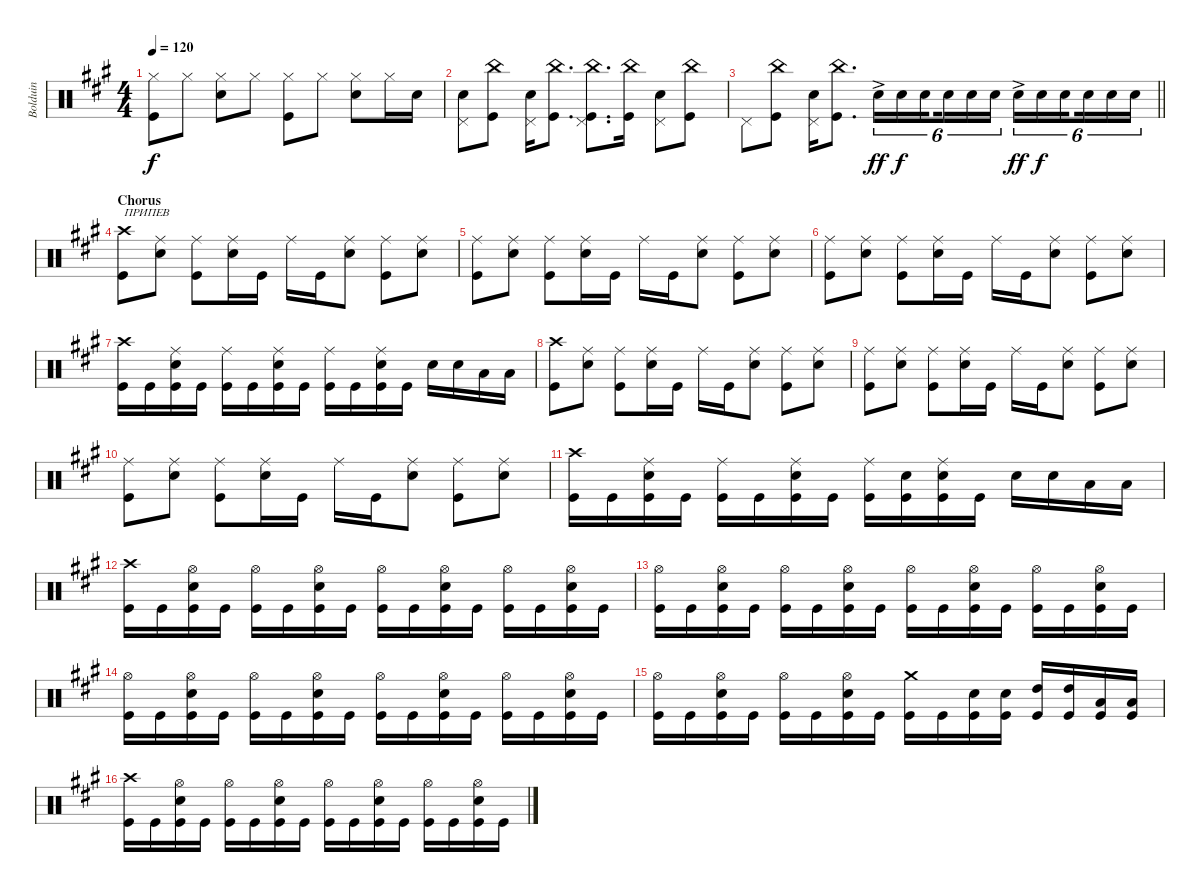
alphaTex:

\track ("Bolduin" "Bolduin") {instrument percussion}
\staff {score}
\articulation defaults
\ts (4 4)
\tempo 120
\clef neutral
\ks f#minor
("Kick (hit)" "Hi-Hat (closed)").8{dy f} "Hi-Hat (closed)".8 ("Hi-Hat (closed)" "Snare (hit) 2").8 "Hi-Hat (closed)".8 ("Kick (hit)" "Hi-Hat (closed)").8 "Hi-Hat (closed)".8 ("Snare (hit) 2" "Hi-Hat (closed)").8 "Hi-Hat (closed)".16 "Snare (hit) 2".16 |
("Snare (hit) 2" "Pedal Hi-Hat (hit)").8 ("Kick (hit)" "China (hit)").8 ("Pedal Hi-Hat (hit)" "Snare (hit) 2").16 ("Kick (hit)" "China (hit)").8{d} ("China (hit)" "Kick (hit)" "Pedal Hi-Hat (hit)").8{d} ("Kick (hit)" "China (hit)").16 ("Snare (hit) 2" "Pedal Hi-Hat (hit)").8 ("Kick (hit)" "China (hit)").8 |
\barLineRight lightlight "Pedal Hi-Hat (hit)".8
("China (hit)" "Kick (hit)").8 ("Snare (hit) 2" "Pedal Hi-Hat (hit)").16 ("China (hit)" "Kick (hit)").8{d} "Snare (hit) 2"{ac}.16{tu (6 4) dy ff} "Snare (hit) 2".16{tu (6 4) dy f} "Snare (hit) 2".16{tu (6 4) beam splitsecondary} "Snare (hit) 2".16{tu (6 4)} "Snare (hit) 2".16{tu (6 4)} "Snare (hit) 2".16{tu (6 4)} "Snare (hit) 2"{ac}.16{tu (6 4) dy ff} "Snare (hit) 2".16{tu (6 4) dy f} "Snare (hit) 2".16{tu (6 4) beam splitsecondary} "Snare (hit) 2".16{tu (6 4)} "Snare (hit) 2".16{tu (6 4)} "Snare (hit) 2".16{tu (6 4)} |
\section ("" "Chorus")
("Kick (hit)" "Crash high (hit)").8{txt "ПРИПЕВ"} ("Snare (hit) 2" "Ride (middle)").8 ("Kick (hit)" "Ride (middle)").8 ("Snare (hit) 2" "Ride (middle)").16 "Kick (hit)".16 "Ride (middle)".16 "Kick (hit)".16 ("Snare (hit) 2" "Ride (middle)").8 ("Kick (hit)" "Ride (middle)").8 ("Snare (hit) 2" "Ride (middle)").8 |
("Kick (hit)" "Ride (middle)").8 ("Snare (hit) 2" "Ride (middle)").8 ("Kick (hit)" "Ride (middle)").8 ("Snare (hit) 2" "Ride (middle)").16 "Kick (hit)".16 "Ride (middle)".16 "Kick (hit)".16 ("Snare (hit) 2" "Ride (middle)").8 ("Kick (hit)" "Ride (middle)").8 ("Snare (hit) 2" "Ride (middle)").8 |
("Kick (hit)" "Ride (middle)").8 ("Snare (hit) 2" "Ride (middle)").8 ("Kick (hit)" "Ride (middle)").8 ("Snare (hit) 2" "Ride (middle)").16 "Kick (hit)".16 "Ride (middle)".16 "Kick (hit)".16 ("Snare (hit) 2" "Ride (middle)").8 ("Kick (hit)" "Ride (middle)").8 ("Snare (hit) 2" "Ride (middle)").8 |
("Kick (hit)" "Crash high (hit)").16 "Kick (hit)".16 ("Kick (hit)" "Ride (middle)" "Snare (hit) 2").16 "Kick (hit)".16 ("Kick (hit)" "Ride (middle)").16 "Kick (hit)".16 ("Kick (hit)" "Ride (middle)" "Snare (hit) 2").16 "Kick (hit)".16 ("Kick (hit)" "Ride (middle)").16 "Kick (hit)".16 ("Kick (hit)" "Ride (middle)" "Snare (hit) 2").16 "Kick (hit)".16 "Snare (hit) 2".16 "Snare (hit) 2".16 "Low Tom (hit)".16 "Low Tom (hit)".16 |
("Kick (hit)" "Crash high (hit)").8 ("Snare (hit) 2" "Ride (middle)").8 ("Kick (hit)" "Ride (middle)").8 ("Snare (hit) 2" "Ride (middle)").16 "Kick (hit)".16 "Ride (middle)".16 "Kick (hit)".16 ("Snare (hit) 2" "Ride (middle)").8 ("Kick (hit)" "Ride (middle)").8 ("Snare (hit) 2" "Ride (middle)").8 |
("Kick (hit)" "Ride (middle)").8 ("Snare (hit) 2" "Ride (middle)").8 ("Kick (hit)" "Ride (middle)").8 ("Snare (hit) 2" "Ride (middle)").16 "Kick (hit)".16 "Ride (middle)".16 "Kick (hit)".16 ("Snare (hit) 2" "Ride (middle)").8 ("Kick (hit)" "Ride (middle)").8 ("Snare (hit) 2" "Ride (middle)").8 |
("Kick (hit)" "Ride (middle)").8 ("Snare (hit) 2" "Ride (middle)").8 ("Kick (hit)" "Ride (middle)").8 ("Snare (hit) 2" "Ride (middle)").16 "Kick (hit)".16 "Ride (middle)".16 "Kick (hit)".16 ("Ride (middle)" "Snare (hit) 2").8 ("Kick (hit)" "Ride (middle)").8 ("Snare (hit) 2" "Ride (middle)").8 |
("Kick (hit)" "Crash high (hit)").16 "Kick (hit)".16 ("Kick (hit)" "Ride (middle)" "Snare (hit) 2").16 "Kick (hit)".16 ("Kick (hit)" "Ride (middle)").16 "Kick (hit)".16 ("Kick (hit)" "Ride (middle)" "Snare (hit) 2").16 "Kick (hit)".16 ("Kick (hit)" "Ride (middle)").16 ("Kick (hit)" "Snare (hit) 2").16 ("Kick (hit)" "Ride (middle)" "Snare (hit) 2").16 "Kick (hit)".16 "Snare (hit) 2".16 "Snare (hit) 2".16 "Low Tom (hit)".16 "Low Tom (hit)".16 |
("Kick (hit)" "Crash high (hit)").16 "Kick (hit)".16 ("Kick (hit)" "Snare (hit) 2" "Hi-Hat (open)").16 "Kick (hit)".16 ("Kick (hit)" "Hi-Hat (open)").16 "Kick (hit)".16 ("Kick (hit)" "Snare (hit) 2" "Hi-Hat (open)").16 "Kick (hit)".16 ("Kick (hit)" "Hi-Hat (open)").16 "Kick (hit)".16 ("Kick (hit)" "Snare (hit) 2" "Hi-Hat (open)").16 "Kick (hit)".16 ("Kick (hit)" "Hi-Hat (open)").16 "Kick (hit)".16 ("Kick (hit)" "Snare (hit) 2" "Hi-Hat (open)").16 "Kick (hit)".16 |
("Kick (hit)" "Hi-Hat (open)").16 "Kick (hit)".16 ("Kick (hit)" "Snare (hit) 2" "Hi-Hat (open)").16 "Kick (hit)".16 ("Kick (hit)" "Hi-Hat (open)").16 "Kick (hit)".16 ("Kick (hit)" "Snare (hit) 2" "Hi-Hat (open)").16 "Kick (hit)".16 ("Kick (hit)" "Hi-Hat (open)").16 "Kick (hit)".16 ("Kick (hit)" "Snare (hit) 2" "Hi-Hat (open)").16 "Kick (hit)".16 ("Kick (hit)" "Hi-Hat (open)").16 "Kick (hit)".16 ("Kick (hit)" "Snare (hit) 2" "Hi-Hat (open)").16 "Kick (hit)".16 |
("Kick (hit)" "Hi-Hat (open)").16 "Kick (hit)".16 ("Snare (hit) 2" "Kick (hit)" "Hi-Hat (open)").16 "Kick (hit)".16 ("Kick (hit)" "Hi-Hat (open)").16 "Kick (hit)".16 ("Kick (hit)" "Snare (hit) 2" "Hi-Hat (open)").16 "Kick (hit)".16 ("Kick (hit)" "Hi-Hat (open)").16 "Kick (hit)".16 ("Kick (hit)" "Snare (hit) 2" "Hi-Hat (open)").16 "Kick (hit)".16 ("Kick (hit)" "Hi-Hat (open)").16 "Kick (hit)".16 ("Kick (hit)" "Snare (hit) 2" "Hi-Hat (open)").16 "Kick (hit)".16 |
("Kick (hit)" "Hi-Hat (open)").16 "Kick (hit)".16 ("Snare (hit) 2" "Kick (hit)" "Hi-Hat (open)").16 "Kick (hit)".16 ("Kick (hit)" "Hi-Hat (open)").16 "Kick (hit)".16 ("Kick (hit)" "Snare (hit) 2" "Hi-Hat (open)").16 "Kick (hit)".16 ("Kick (hit)" "Crash medium (hit)").16 "Kick (hit)".16 ("Kick (hit)" "Snare (hit) 2").16 ("Kick (hit)" "Snare (hit) 2").16 ("Kick (hit)" "High Tom (hit)").16 ("Kick (hit)" "High Tom (hit)").16 ("Kick (hit)" "Low Tom (hit)").16 ("Kick (hit)" "Low Tom (hit)").16 |
("Kick (hit)" "Crash high (hit)").16 "Kick (hit)".16 ("Snare (hit) 2" "Kick (hit)" "Hi-Hat (open)").16 "Kick (hit)".16 ("Kick (hit)" "Hi-Hat (open)").16 "Kick (hit)".16 ("Kick (hit)" "Snare (hit) 2" "Hi-Hat (open)").16 "Kick (hit)".16 ("Kick (hit)" "Hi-Hat (open)").16 "Kick (hit)".16 ("Kick (hit)" "Snare (hit) 2" "Hi-Hat (open)").16 "Kick (hit)".16 ("Kick (hit)" "Hi-Hat (open)").16 "Kick (hit)".16 ("Kick (hit)" "Snare (hit) 2" "Hi-Hat (open)").16 "Kick (hit)".16
